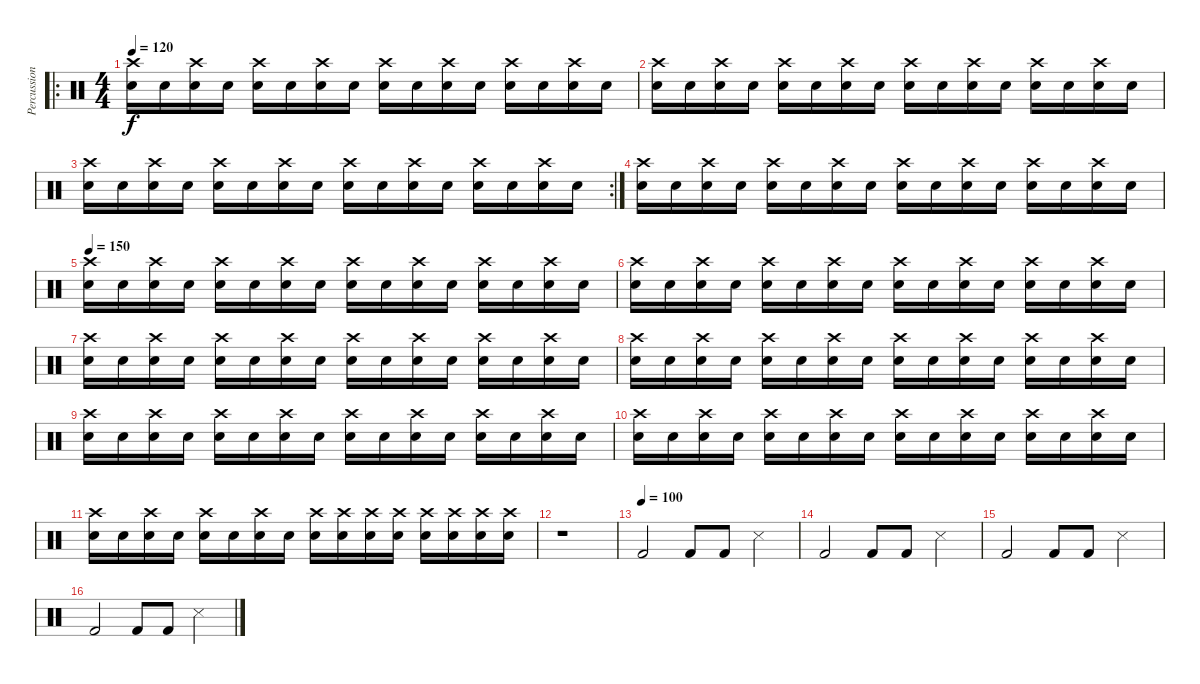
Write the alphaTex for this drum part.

\track ("Percussion" "Percussion") {instrument percussion}
\staff {score}
\articulation defaults
\ro
\ts (4 4)
\tempo 120
\clef neutral
\ks c
("Snare (hit) 2" "Crash high (hit)").16{dy f} "Snare (hit) 2".16 ("Snare (hit) 2" "Crash high (hit)").16 "Snare (hit) 2".16 ("Snare (hit) 2" "Crash high (hit)").16 "Snare (hit) 2".16 ("Snare (hit) 2" "Crash high (hit)").16 "Snare (hit) 2".16 ("Snare (hit) 2" "Crash high (hit)").16 "Snare (hit) 2".16 ("Snare (hit) 2" "Crash high (hit)").16 "Snare (hit) 2".16 ("Snare (hit) 2" "Crash high (hit)").16 "Snare (hit) 2".16 ("Snare (hit) 2" "Crash high (hit)").16 "Snare (hit) 2".16 |
("Snare (hit) 2" "Crash high (hit)").16 "Snare (hit) 2".16 ("Snare (hit) 2" "Crash high (hit)").16 "Snare (hit) 2".16 ("Snare (hit) 2" "Crash high (hit)").16 "Snare (hit) 2".16 ("Snare (hit) 2" "Crash high (hit)").16 "Snare (hit) 2".16 ("Snare (hit) 2" "Crash high (hit)").16 "Snare (hit) 2".16 ("Snare (hit) 2" "Crash high (hit)").16 "Snare (hit) 2".16 ("Snare (hit) 2" "Crash high (hit)").16 "Snare (hit) 2".16 ("Snare (hit) 2" "Crash high (hit)").16 "Snare (hit) 2".16 |
\rc 2
("Snare (hit) 2" "Crash high (hit)").16 "Snare (hit) 2".16 ("Snare (hit) 2" "Crash high (hit)").16 "Snare (hit) 2".16 ("Snare (hit) 2" "Crash high (hit)").16 "Snare (hit) 2".16 ("Snare (hit) 2" "Crash high (hit)").16 "Snare (hit) 2".16 ("Snare (hit) 2" "Crash high (hit)").16 "Snare (hit) 2".16 ("Snare (hit) 2" "Crash high (hit)").16 "Snare (hit) 2".16 ("Snare (hit) 2" "Crash high (hit)").16 "Snare (hit) 2".16 ("Snare (hit) 2" "Crash high (hit)").16 "Snare (hit) 2".16 |
("Snare (hit) 2" "Crash high (hit)").16 "Snare (hit) 2".16 ("Snare (hit) 2" "Crash high (hit)").16 "Snare (hit) 2".16 ("Snare (hit) 2" "Crash high (hit)").16 "Snare (hit) 2".16 ("Snare (hit) 2" "Crash high (hit)").16 "Snare (hit) 2".16 ("Snare (hit) 2" "Crash high (hit)").16 "Snare (hit) 2".16 ("Snare (hit) 2" "Crash high (hit)").16 "Snare (hit) 2".16 ("Snare (hit) 2" "Crash high (hit)").16 "Snare (hit) 2".16 ("Snare (hit) 2" "Crash high (hit)").16 "Snare (hit) 2".16 |
\tempo 150
("Snare (hit) 2" "Crash high (hit)").16 "Snare (hit) 2".16 ("Snare (hit) 2" "Crash high (hit)").16 "Snare (hit) 2".16 ("Snare (hit) 2" "Crash high (hit)").16 "Snare (hit) 2".16 ("Snare (hit) 2" "Crash high (hit)").16 "Snare (hit) 2".16 ("Snare (hit) 2" "Crash high (hit)").16 "Snare (hit) 2".16 ("Snare (hit) 2" "Crash high (hit)").16 "Snare (hit) 2".16 ("Snare (hit) 2" "Crash high (hit)").16 "Snare (hit) 2".16 ("Snare (hit) 2" "Crash high (hit)").16 "Snare (hit) 2".16 |
("Snare (hit) 2" "Crash high (hit)").16 "Snare (hit) 2".16 ("Snare (hit) 2" "Crash high (hit)").16 "Snare (hit) 2".16 ("Snare (hit) 2" "Crash high (hit)").16 "Snare (hit) 2".16 ("Snare (hit) 2" "Crash high (hit)").16 "Snare (hit) 2".16 ("Snare (hit) 2" "Crash high (hit)").16 "Snare (hit) 2".16 ("Snare (hit) 2" "Crash high (hit)").16 "Snare (hit) 2".16 ("Snare (hit) 2" "Crash high (hit)").16 "Snare (hit) 2".16 ("Snare (hit) 2" "Crash high (hit)").16 "Snare (hit) 2".16 |
("Snare (hit) 2" "Crash high (hit)").16 "Snare (hit) 2".16 ("Snare (hit) 2" "Crash high (hit)").16 "Snare (hit) 2".16 ("Snare (hit) 2" "Crash high (hit)").16 "Snare (hit) 2".16 ("Snare (hit) 2" "Crash high (hit)").16 "Snare (hit) 2".16 ("Snare (hit) 2" "Crash high (hit)").16 "Snare (hit) 2".16 ("Snare (hit) 2" "Crash high (hit)").16 "Snare (hit) 2".16 ("Snare (hit) 2" "Crash high (hit)").16 "Snare (hit) 2".16 ("Snare (hit) 2" "Crash high (hit)").16 "Snare (hit) 2".16 |
("Snare (hit) 2" "Crash high (hit)").16 "Snare (hit) 2".16 ("Snare (hit) 2" "Crash high (hit)").16 "Snare (hit) 2".16 ("Snare (hit) 2" "Crash high (hit)").16 "Snare (hit) 2".16 ("Snare (hit) 2" "Crash high (hit)").16 "Snare (hit) 2".16 ("Snare (hit) 2" "Crash high (hit)").16 "Snare (hit) 2".16 ("Snare (hit) 2" "Crash high (hit)").16 "Snare (hit) 2".16 ("Snare (hit) 2" "Crash high (hit)").16 "Snare (hit) 2".16 ("Snare (hit) 2" "Crash high (hit)").16 "Snare (hit) 2".16 |
("Snare (hit) 2" "Crash high (hit)").16 "Snare (hit) 2".16 ("Snare (hit) 2" "Crash high (hit)").16 "Snare (hit) 2".16 ("Snare (hit) 2" "Crash high (hit)").16 "Snare (hit) 2".16 ("Snare (hit) 2" "Crash high (hit)").16 "Snare (hit) 2".16 ("Snare (hit) 2" "Crash high (hit)").16 "Snare (hit) 2".16 ("Snare (hit) 2" "Crash high (hit)").16 "Snare (hit) 2".16 ("Snare (hit) 2" "Crash high (hit)").16 "Snare (hit) 2".16 ("Snare (hit) 2" "Crash high (hit)").16 "Snare (hit) 2".16 |
("Snare (hit) 2" "Crash high (hit)").16 "Snare (hit) 2".16 ("Snare (hit) 2" "Crash high (hit)").16 "Snare (hit) 2".16 ("Snare (hit) 2" "Crash high (hit)").16 "Snare (hit) 2".16 ("Snare (hit) 2" "Crash high (hit)").16 "Snare (hit) 2".16 ("Snare (hit) 2" "Crash high (hit)").16 "Snare (hit) 2".16 ("Snare (hit) 2" "Crash high (hit)").16 "Snare (hit) 2".16 ("Snare (hit) 2" "Crash high (hit)").16 "Snare (hit) 2".16 ("Snare (hit) 2" "Crash high (hit)").16 "Snare (hit) 2".16 |
("Snare (hit) 2" "Crash high (hit)").16 "Snare (hit) 2".16 ("Snare (hit) 2" "Crash high (hit)").16 "Snare (hit) 2".16 ("Snare (hit) 2" "Crash high (hit)").16 "Snare (hit) 2".16 ("Snare (hit) 2" "Crash high (hit)").16 "Snare (hit) 2".16 ("Snare (hit) 2" "Crash high (hit)").16 ("Snare (hit) 2" "Crash high (hit)").16 ("Snare (hit) 2" "Crash high (hit)").16 ("Snare (hit) 2" "Crash high (hit)").16 ("Snare (hit) 2" "Crash high (hit)").16 ("Snare (hit) 2" "Crash high (hit)").16 ("Snare (hit) 2" "Crash high (hit)").16 ("Snare (hit) 2" "Crash high (hit)").16 |
r.1 |
\tempo (100)
"Kick (hit) 2".2 "Kick (hit) 2".8 "Kick (hit) 2".8 "Snare (side stick) 3".4 |
"Kick (hit) 2".2 "Kick (hit) 2".8 "Kick (hit) 2".8 "Snare (side stick) 3".4 |
"Kick (hit) 2".2 "Kick (hit) 2".8 "Kick (hit) 2".8 "Snare (side stick) 3".4 |
"Kick (hit) 2".2 "Kick (hit) 2".8 "Kick (hit) 2".8 "Snare (side stick) 3".4
